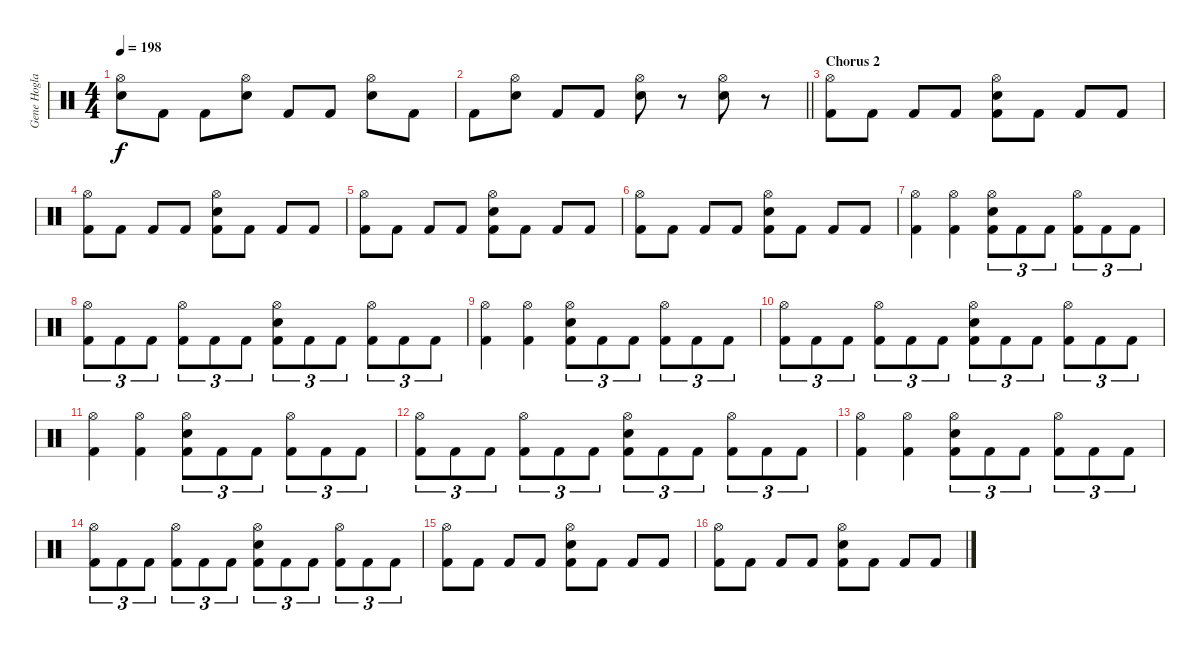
\track ("Gene Hoglan" "Gene Hogla") {instrument percussion}
\staff {score}
\articulation defaults
\ts (4 4)
\tempo 198
\clef neutral
\ks c
("Hi-Hat (open)" "Snare (hit) 2").8{dy f} "Kick (hit) 2".8 "Kick (hit) 2".8 ("Hi-Hat (open)" "Snare (hit) 2").8 "Kick (hit) 2".8 "Kick (hit) 2".8 ("Hi-Hat (open)" "Snare (hit) 2").8 "Kick (hit) 2".8 |
\barLineRight lightlight "Kick (hit) 2".8
("Hi-Hat (open)" "Snare (hit) 2").8 "Kick (hit) 2".8 "Kick (hit) 2".8 ("Hi-Hat (open)" "Snare (hit) 2").8 r.8 ("Hi-Hat (open)" "Snare (hit) 2").8 r.8 |
\section ("" "Chorus 2")
("Hi-Hat (open)" "Kick (hit) 2").8 "Kick (hit) 2".8 "Kick (hit) 2".8 "Kick (hit) 2".8 ("Hi-Hat (open)" "Snare (hit) 2" "Kick (hit) 2").8 "Kick (hit) 2".8 "Kick (hit) 2".8 "Kick (hit) 2".8 |
("Hi-Hat (open)" "Kick (hit) 2").8 "Kick (hit) 2".8 "Kick (hit) 2".8 "Kick (hit) 2".8 ("Hi-Hat (open)" "Snare (hit) 2" "Kick (hit) 2").8 "Kick (hit) 2".8 "Kick (hit) 2".8 "Kick (hit) 2".8 |
("Hi-Hat (open)" "Kick (hit) 2").8 "Kick (hit) 2".8 "Kick (hit) 2".8 "Kick (hit) 2".8 ("Hi-Hat (open)" "Snare (hit) 2" "Kick (hit) 2").8 "Kick (hit) 2".8 "Kick (hit) 2".8 "Kick (hit) 2".8 |
("Hi-Hat (open)" "Kick (hit) 2").8 "Kick (hit) 2".8 "Kick (hit) 2".8 "Kick (hit) 2".8 ("Hi-Hat (open)" "Snare (hit) 2" "Kick (hit) 2").8 "Kick (hit) 2".8 "Kick (hit) 2".8 "Kick (hit) 2".8 |
("Hi-Hat (open)" "Kick (hit) 2").4 ("Hi-Hat (open)" "Kick (hit) 2").4 ("Hi-Hat (open)" "Snare (hit) 2" "Kick (hit) 2").8{tu (3 2)} "Kick (hit) 2".8{tu (3 2)} "Kick (hit) 2".8{tu (3 2)} ("Hi-Hat (open)" "Kick (hit) 2").8{tu (3 2)} "Kick (hit) 2".8{tu (3 2)} "Kick (hit) 2".8{tu (3 2)} |
("Hi-Hat (open)" "Kick (hit) 2").8{tu (3 2)} "Kick (hit) 2".8{tu (3 2)} "Kick (hit) 2".8{tu (3 2)} ("Hi-Hat (open)" "Kick (hit) 2").8{tu (3 2)} "Kick (hit) 2".8{tu (3 2)} "Kick (hit) 2".8{tu (3 2)} ("Hi-Hat (open)" "Snare (hit) 2" "Kick (hit) 2").8{tu (3 2)} "Kick (hit) 2".8{tu (3 2)} "Kick (hit) 2".8{tu (3 2)} ("Hi-Hat (open)" "Kick (hit) 2").8{tu (3 2)} "Kick (hit) 2".8{tu (3 2)} "Kick (hit) 2".8{tu (3 2)} |
("Hi-Hat (open)" "Kick (hit) 2").4 ("Hi-Hat (open)" "Kick (hit) 2").4 ("Hi-Hat (open)" "Snare (hit) 2" "Kick (hit) 2").8{tu (3 2)} "Kick (hit) 2".8{tu (3 2)} "Kick (hit) 2".8{tu (3 2)} ("Hi-Hat (open)" "Kick (hit) 2").8{tu (3 2)} "Kick (hit) 2".8{tu (3 2)} "Kick (hit) 2".8{tu (3 2)} |
("Hi-Hat (open)" "Kick (hit) 2").8{tu (3 2)} "Kick (hit) 2".8{tu (3 2)} "Kick (hit) 2".8{tu (3 2)} ("Hi-Hat (open)" "Kick (hit) 2").8{tu (3 2)} "Kick (hit) 2".8{tu (3 2)} "Kick (hit) 2".8{tu (3 2)} ("Hi-Hat (open)" "Snare (hit) 2" "Kick (hit) 2").8{tu (3 2)} "Kick (hit) 2".8{tu (3 2)} "Kick (hit) 2".8{tu (3 2)} ("Hi-Hat (open)" "Kick (hit) 2").8{tu (3 2)} "Kick (hit) 2".8{tu (3 2)} "Kick (hit) 2".8{tu (3 2)} |
("Hi-Hat (open)" "Kick (hit) 2").4 ("Hi-Hat (open)" "Kick (hit) 2").4 ("Hi-Hat (open)" "Snare (hit) 2" "Kick (hit) 2").8{tu (3 2)} "Kick (hit) 2".8{tu (3 2)} "Kick (hit) 2".8{tu (3 2)} ("Hi-Hat (open)" "Kick (hit) 2").8{tu (3 2)} "Kick (hit) 2".8{tu (3 2)} "Kick (hit) 2".8{tu (3 2)} |
("Hi-Hat (open)" "Kick (hit) 2").8{tu (3 2)} "Kick (hit) 2".8{tu (3 2)} "Kick (hit) 2".8{tu (3 2)} ("Hi-Hat (open)" "Kick (hit) 2").8{tu (3 2)} "Kick (hit) 2".8{tu (3 2)} "Kick (hit) 2".8{tu (3 2)} ("Hi-Hat (open)" "Snare (hit) 2" "Kick (hit) 2").8{tu (3 2)} "Kick (hit) 2".8{tu (3 2)} "Kick (hit) 2".8{tu (3 2)} ("Hi-Hat (open)" "Kick (hit) 2").8{tu (3 2)} "Kick (hit) 2".8{tu (3 2)} "Kick (hit) 2".8{tu (3 2)} |
("Hi-Hat (open)" "Kick (hit) 2").4 ("Hi-Hat (open)" "Kick (hit) 2").4 ("Hi-Hat (open)" "Snare (hit) 2" "Kick (hit) 2").8{tu (3 2)} "Kick (hit) 2".8{tu (3 2)} "Kick (hit) 2".8{tu (3 2)} ("Hi-Hat (open)" "Kick (hit) 2").8{tu (3 2)} "Kick (hit) 2".8{tu (3 2)} "Kick (hit) 2".8{tu (3 2)} |
("Hi-Hat (open)" "Kick (hit) 2").8{tu (3 2)} "Kick (hit) 2".8{tu (3 2)} "Kick (hit) 2".8{tu (3 2)} ("Hi-Hat (open)" "Kick (hit) 2").8{tu (3 2)} "Kick (hit) 2".8{tu (3 2)} "Kick (hit) 2".8{tu (3 2)} ("Hi-Hat (open)" "Snare (hit) 2" "Kick (hit) 2").8{tu (3 2)} "Kick (hit) 2".8{tu (3 2)} "Kick (hit) 2".8{tu (3 2)} ("Hi-Hat (open)" "Kick (hit) 2").8{tu (3 2)} "Kick (hit) 2".8{tu (3 2)} "Kick (hit) 2".8{tu (3 2)} |
("Hi-Hat (open)" "Kick (hit) 2").8 "Kick (hit) 2".8 "Kick (hit) 2".8 "Kick (hit) 2".8 ("Hi-Hat (open)" "Snare (hit) 2" "Kick (hit) 2").8 "Kick (hit) 2".8 "Kick (hit) 2".8 "Kick (hit) 2".8 |
("Hi-Hat (open)" "Kick (hit) 2").8 "Kick (hit) 2".8 "Kick (hit) 2".8 "Kick (hit) 2".8 ("Hi-Hat (open)" "Snare (hit) 2" "Kick (hit) 2").8 "Kick (hit) 2".8 "Kick (hit) 2".8 "Kick (hit) 2".8
